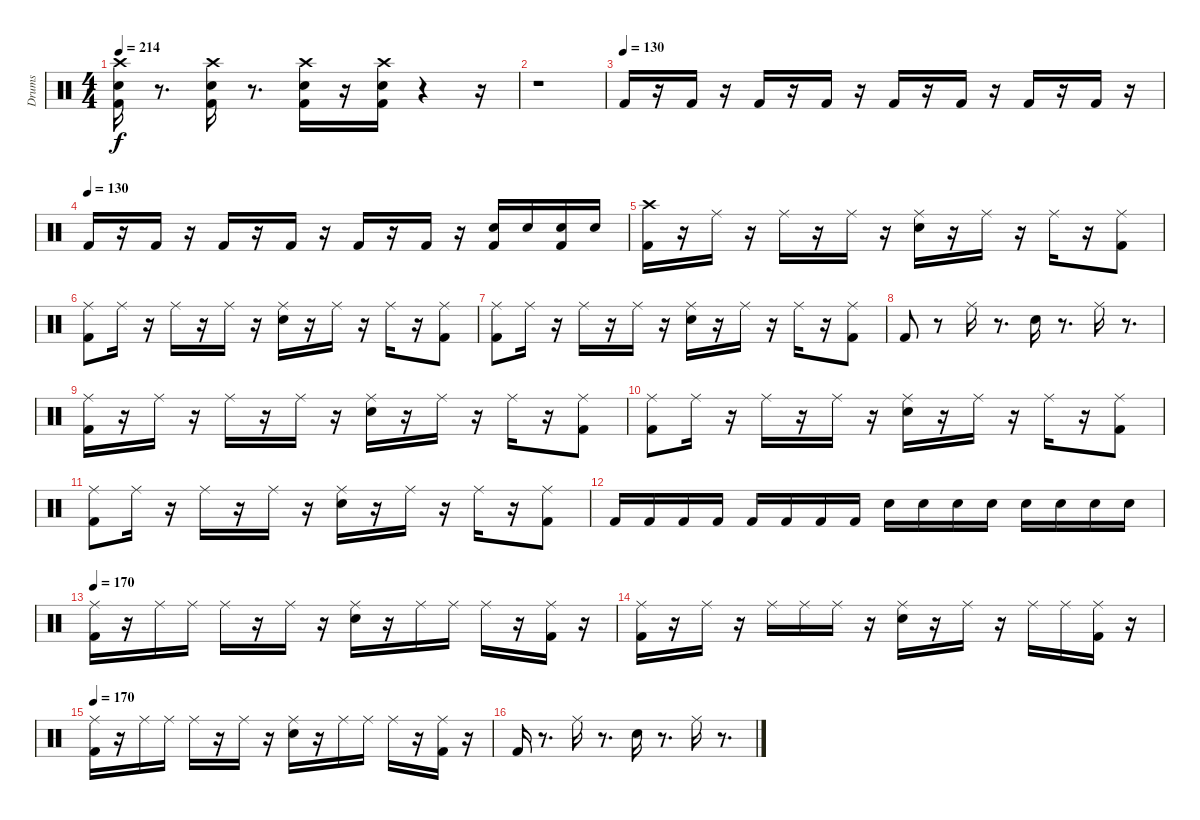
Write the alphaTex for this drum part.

\track ("Drums               " "Drums     ") {instrument percussion}
\staff {score}
\articulation defaults
\ts (4 4)
\tempo 214
\clef neutral
\ks c
("Kick (hit) 2" "Snare (hit) 2" "Crash high (hit)").16{dy f} r.8{d} ("Kick (hit) 2" "Snare (hit) 2" "Crash high (hit)").16 r.8{d} ("Kick (hit) 2" "Snare (hit) 2" "Crash high (hit)").16 r.16 ("Kick (hit) 2" "Snare (hit) 2" "Crash high (hit)").16 r.4 r.16 |
r.1 |
\tempo (130)
"Kick (hit) 2".16 r.16 "Kick (hit) 2".16 r.16 "Kick (hit) 2".16 r.16 "Kick (hit) 2".16 r.16 "Kick (hit) 2".16 r.16 "Kick (hit) 2".16 r.16 "Kick (hit) 2".16 r.16 "Kick (hit) 2".16 r.16 |
\tempo (130)
"Kick (hit) 2".16 r.16 "Kick (hit) 2".16 r.16 "Kick (hit) 2".16 r.16 "Kick (hit) 2".16 r.16 "Kick (hit) 2".16 r.16 "Kick (hit) 2".16 r.16 ("Kick (hit) 2" "Snare (hit) 2").16 "Snare (hit) 2".16 ("Kick (hit) 2" "Snare (hit) 2").16 "Snare (hit) 2".16 |
("Kick (hit) 2" "Crash high (hit)").16 r.16 "Ride (middle)".16 r.16 "Ride (middle)".16 r.16 "Ride (middle)".16 r.16 ("Snare (hit) 2" "Ride (middle)").16 r.16 "Ride (middle)".16 r.16 "Ride (middle)".16 r.16 ("Kick (hit) 2" "Ride (middle)").8 |
("Kick (hit) 2" "Ride (middle)").8 "Ride (middle)".16 r.16 "Ride (middle)".16 r.16 "Ride (middle)".16 r.16 ("Snare (hit) 2" "Ride (middle)").16 r.16 "Ride (middle)".16 r.16 "Ride (middle)".16 r.16 ("Kick (hit) 2" "Ride (middle)").8 |
("Kick (hit) 2" "Ride (middle)").8 "Ride (middle)".16 r.16 "Ride (middle)".16 r.16 "Ride (middle)".16 r.16 ("Snare (hit) 2" "Ride (middle)").16 r.16 "Ride (middle)".16 r.16 "Ride (middle)".16 r.16 ("Kick (hit) 2" "Ride (middle)").8 |
"Kick (hit) 2".8 r.8 "Ride (middle)".16 r.8{d} "Snare (hit) 2".16 r.8{d} "Ride (middle)".16 r.8{d} |
("Kick (hit) 2" "Ride (middle)").16 r.16 "Ride (middle)".16 r.16 "Ride (middle)".16 r.16 "Ride (middle)".16 r.16 ("Snare (hit) 2" "Ride (middle)").16 r.16 "Ride (middle)".16 r.16 "Ride (middle)".16 r.16 ("Kick (hit) 2" "Ride (middle)").8 |
("Kick (hit) 2" "Ride (middle)").8 "Ride (middle)".16 r.16 "Ride (middle)".16 r.16 "Ride (middle)".16 r.16 ("Snare (hit) 2" "Ride (middle)").16 r.16 "Ride (middle)".16 r.16 "Ride (middle)".16 r.16 ("Kick (hit) 2" "Ride (middle)").8 |
("Kick (hit) 2" "Ride (middle)").8 "Ride (middle)".16 r.16 "Ride (middle)".16 r.16 "Ride (middle)".16 r.16 ("Snare (hit) 2" "Ride (middle)").16 r.16 "Ride (middle)".16 r.16 "Ride (middle)".16 r.16 ("Kick (hit) 2" "Ride (middle)").8 |
"Kick (hit) 2".16 "Kick (hit) 2".16 "Kick (hit) 2".16 "Kick (hit) 2".16 "Kick (hit) 2".16 "Kick (hit) 2".16 "Kick (hit) 2".16 "Kick (hit) 2".16 "Snare (hit) 2".16 "Snare (hit) 2".16 "Snare (hit) 2".16 "Snare (hit) 2".16 "Snare (hit) 2".16 "Snare (hit) 2".16 "Snare (hit) 2".16 "Snare (hit) 2".16 |
\tempo 170
("Kick (hit) 2" "Ride (middle)").16 r.16 "Ride (middle)".16 "Ride (middle)".16 "Ride (middle)".16 r.16 "Ride (middle)".16 r.16 ("Snare (hit) 2" "Ride (middle)").16 r.16 "Ride (middle)".16 "Ride (middle)".16 "Ride (middle)".16 r.16 ("Kick (hit) 2" "Ride (middle)").16 r.16 |
("Kick (hit) 2" "Ride (middle)").16 r.16 "Ride (middle)".16 r.16 "Ride (middle)".16 "Ride (middle)".16 "Ride (middle)".16 r.16 ("Snare (hit) 2" "Ride (middle)").16 r.16 "Ride (middle)".16 r.16 "Ride (middle)".16 "Ride (middle)".16 ("Ride (middle)" "Kick (hit) 2").16 r.16 |
\tempo 170
("Kick (hit) 2" "Ride (middle)").16 r.16 "Ride (middle)".16 "Ride (middle)".16 "Ride (middle)".16 r.16 "Ride (middle)".16 r.16 ("Snare (hit) 2" "Ride (middle)").16 r.16 "Ride (middle)".16 "Ride (middle)".16 "Ride (middle)".16 r.16 ("Kick (hit) 2" "Ride (middle)").16 r.16 |
"Kick (hit) 2".16 r.8{d} "Ride (middle)".16 r.8{d} "Snare (hit) 2".16 r.8{d} "Ride (middle)".16 r.8{d}
